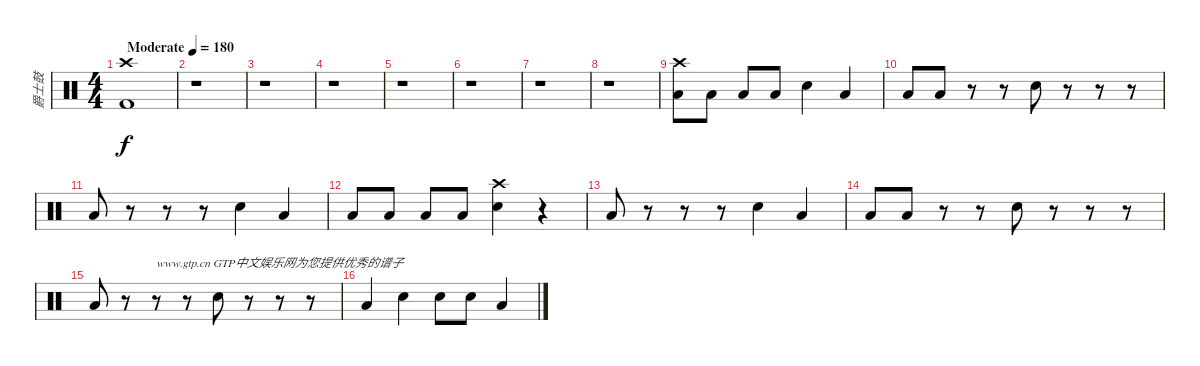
\track ("爵士鼓" "爵士鼓") {instrument percussion}
\staff {score}
\articulation defaults
\ts (4 4)
\tempo (180 "Moderate")
\clef neutral
\ks c
("Crash high (hit)" "Kick (hit) 2").1{dy f} |
r.1 |
r.1 |
r.1 |
r.1 |
r.1 |
r.1 |
r.1 |
("Low Floor Tom (hit)" "Crash high (hit)").8 "Low Floor Tom (hit)".8 "Low Floor Tom (hit)".8 "Low Floor Tom (hit)".8 "Snare (hit) 2".4 "Low Floor Tom (hit)".4 |
"Low Floor Tom (hit)".8 "Low Floor Tom (hit)".8 r.8 r.8 "Snare (hit) 2".8 r.8 r.8 r.8 |
"Low Floor Tom (hit)".8 r.8 r.8 r.8 "Snare (hit) 2".4 "Low Floor Tom (hit)".4 |
"Low Floor Tom (hit)".8 "Low Floor Tom (hit)".8 "Low Floor Tom (hit)".8 "Low Floor Tom (hit)".8 ("Snare (hit) 2" "Crash high (hit)").4 r.4 |
"Low Floor Tom (hit)".8 r.8 r.8 r.8 "Snare (hit) 2".4 "Low Floor Tom (hit)".4 |
"Low Floor Tom (hit)".8 "Low Floor Tom (hit)".8 r.8 r.8 "Snare (hit) 2".8 r.8 r.8 r.8 |
"Low Floor Tom (hit)".8 r.8 r.8{txt "www.gtp.cn GTP中文娱乐网为您提供优秀的谱子"} r.8 "Snare (hit) 2".8 r.8 r.8 r.8 |
"Low Floor Tom (hit)".4 "Snare (hit) 2".4 "Snare (hit) 2".8 "Snare (hit) 2".8 "Low Floor Tom (hit)".4
